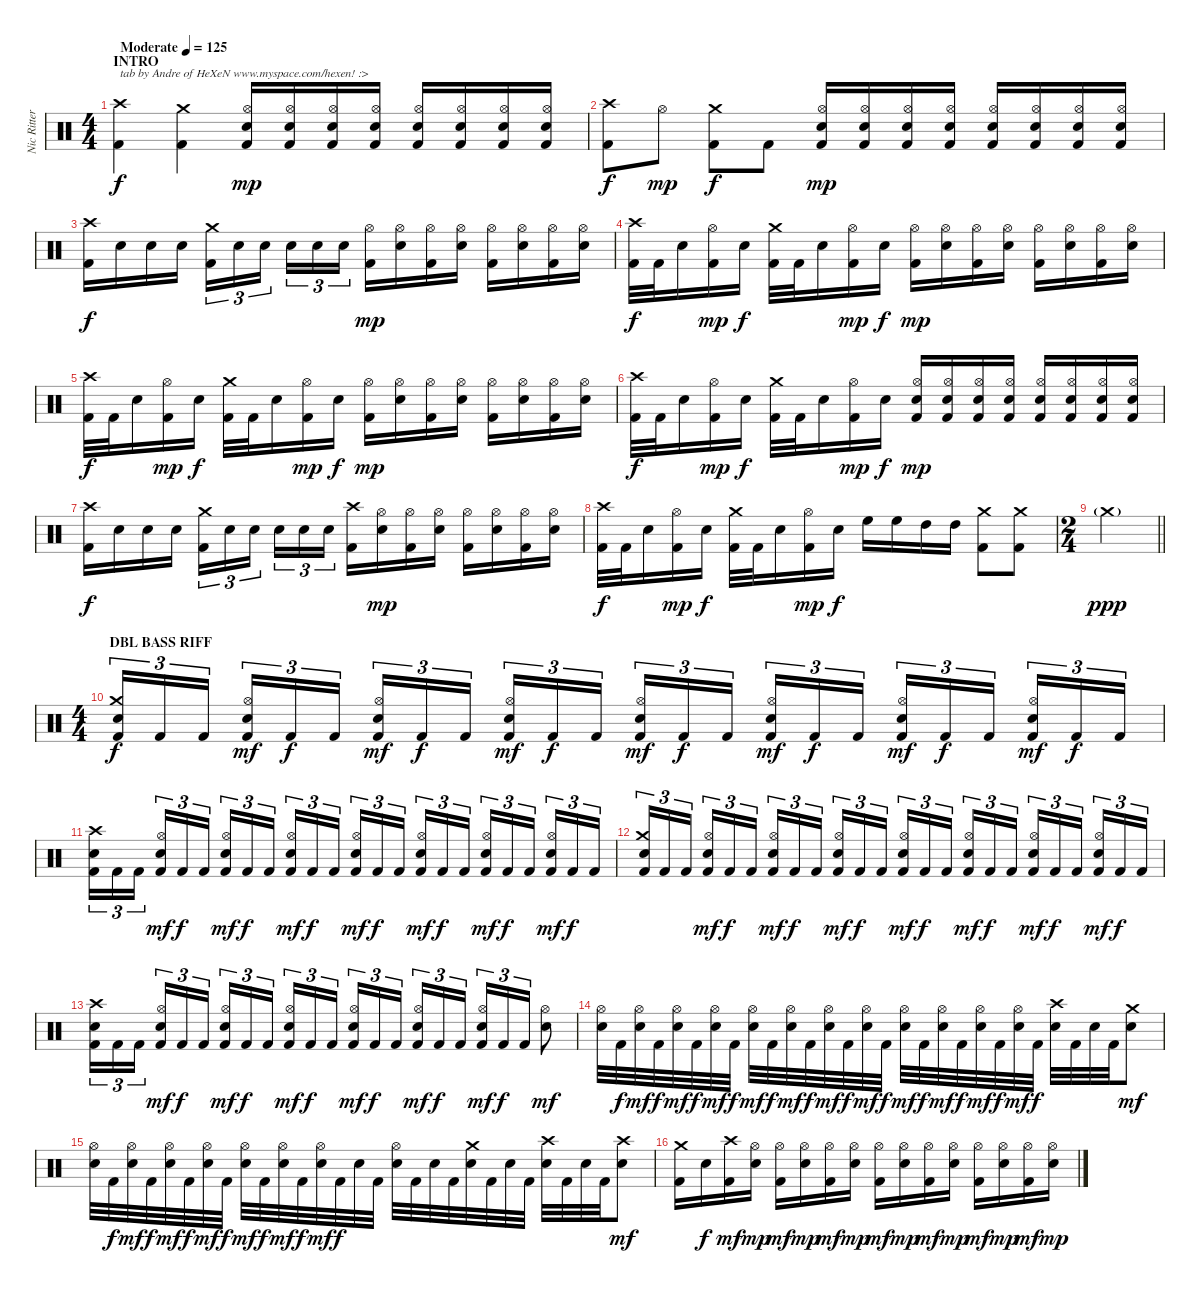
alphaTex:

\track ("Nic Ritter" "Nic Ritter") {instrument percussion}
\staff {score}
\articulation defaults
\ts (4 4)
\section ("" "INTRO")
\tempo (125 "Moderate")
\clef neutral
\ks c
("Crash high (hit)" "Kick (hit) 2").4{txt "tab by Andre of HeXeN www.myspace.com/hexen! :>" dy f} ("Crash medium (hit)" "Kick (hit) 2").4 ("Hi-Hat (open)" "Electric Snare (hit)" "Kick (hit) 2").16{dy mp} ("Hi-Hat (open)" "Electric Snare (hit)" "Kick (hit) 2").16 ("Hi-Hat (open)" "Electric Snare (hit)" "Kick (hit) 2").16 ("Hi-Hat (open)" "Electric Snare (hit)" "Kick (hit) 2").16 ("Hi-Hat (open)" "Electric Snare (hit)" "Kick (hit) 2").16 ("Hi-Hat (open)" "Electric Snare (hit)" "Kick (hit) 2").16 ("Hi-Hat (open)" "Electric Snare (hit)" "Kick (hit) 2").16 ("Hi-Hat (open)" "Electric Snare (hit)" "Kick (hit) 2").16 |
("Crash high (hit)" "Kick (hit) 2").8{dy f} "Hi-Hat (open)".8{dy mp} ("Crash medium (hit)" "Kick (hit) 2").8{dy f} "Kick (hit) 2".8 ("Hi-Hat (open)" "Electric Snare (hit)" "Kick (hit) 2").16{dy mp} ("Hi-Hat (open)" "Electric Snare (hit)" "Kick (hit) 2").16 ("Hi-Hat (open)" "Electric Snare (hit)" "Kick (hit) 2").16 ("Hi-Hat (open)" "Electric Snare (hit)" "Kick (hit) 2").16 ("Hi-Hat (open)" "Electric Snare (hit)" "Kick (hit) 2").16 ("Hi-Hat (open)" "Electric Snare (hit)" "Kick (hit) 2").16 ("Hi-Hat (open)" "Electric Snare (hit)" "Kick (hit) 2").16 ("Hi-Hat (open)" "Electric Snare (hit)" "Kick (hit) 2").16 |
("Crash high (hit)" "Kick (hit) 2").16{dy f} "Electric Snare (hit)".16 "Electric Snare (hit)".16 "Electric Snare (hit)".16 ("Crash medium (hit)" "Kick (hit) 2").16{tu (3 2)} "Electric Snare (hit)".16{tu (3 2)} "Electric Snare (hit)".16{tu (3 2) beam splitsecondary} "Electric Snare (hit)".16{tu (3 2)} "Electric Snare (hit)".16{tu (3 2)} "Electric Snare (hit)".16{tu (3 2)} ("Hi-Hat (open)" "Kick (hit) 2").16{dy mp} ("Hi-Hat (open)" "Electric Snare (hit)").16 ("Hi-Hat (open)" "Kick (hit) 2").16 ("Hi-Hat (open)" "Electric Snare (hit)").16 ("Hi-Hat (open)" "Kick (hit) 2").16 ("Hi-Hat (open)" "Electric Snare (hit)").16 ("Hi-Hat (open)" "Kick (hit) 2").16 ("Hi-Hat (open)" "Electric Snare (hit)").16 |
("Crash high (hit)" "Kick (hit) 2").32{dy f} "Kick (hit) 2".32 "Electric Snare (hit)".16 ("Hi-Hat (open)" "Kick (hit) 2").16{dy mp} "Electric Snare (hit)".16{dy f} ("Crash medium (hit)" "Kick (hit) 2").32 "Kick (hit) 2".32 "Electric Snare (hit)".16 ("Hi-Hat (open)" "Kick (hit) 2").16{dy mp} "Electric Snare (hit)".16{dy f} ("Hi-Hat (open)" "Kick (hit) 2").16{dy mp} ("Hi-Hat (open)" "Electric Snare (hit)").16 ("Hi-Hat (open)" "Kick (hit) 2").16 ("Hi-Hat (open)" "Electric Snare (hit)").16 ("Hi-Hat (open)" "Kick (hit) 2").16 ("Hi-Hat (open)" "Electric Snare (hit)").16 ("Hi-Hat (open)" "Kick (hit) 2").16 ("Hi-Hat (open)" "Electric Snare (hit)").16 |
("Crash high (hit)" "Kick (hit) 2").32{dy f} "Kick (hit) 2".32 "Electric Snare (hit)".16 ("Hi-Hat (open)" "Kick (hit) 2").16{dy mp} "Electric Snare (hit)".16{dy f} ("Crash medium (hit)" "Kick (hit) 2").32 "Kick (hit) 2".32 "Electric Snare (hit)".16 ("Hi-Hat (open)" "Kick (hit) 2").16{dy mp} "Electric Snare (hit)".16{dy f} ("Hi-Hat (open)" "Kick (hit) 2").16{dy mp} ("Hi-Hat (open)" "Electric Snare (hit)").16 ("Hi-Hat (open)" "Kick (hit) 2").16 ("Hi-Hat (open)" "Electric Snare (hit)").16 ("Hi-Hat (open)" "Kick (hit) 2").16 ("Hi-Hat (open)" "Electric Snare (hit)").16 ("Hi-Hat (open)" "Kick (hit) 2").16 ("Hi-Hat (open)" "Electric Snare (hit)").16 |
("Crash high (hit)" "Kick (hit) 2").32{dy f} "Kick (hit) 2".32 "Electric Snare (hit)".16 ("Hi-Hat (open)" "Kick (hit) 2").16{dy mp} "Electric Snare (hit)".16{dy f} ("Crash medium (hit)" "Kick (hit) 2").32 "Kick (hit) 2".32 "Electric Snare (hit)".16 ("Hi-Hat (open)" "Kick (hit) 2").16{dy mp} "Electric Snare (hit)".16{dy f} ("Hi-Hat (open)" "Electric Snare (hit)" "Kick (hit) 2").16{dy mp} ("Hi-Hat (open)" "Electric Snare (hit)" "Kick (hit) 2").16 ("Hi-Hat (open)" "Electric Snare (hit)" "Kick (hit) 2").16 ("Hi-Hat (open)" "Electric Snare (hit)" "Kick (hit) 2").16 ("Hi-Hat (open)" "Electric Snare (hit)" "Kick (hit) 2").16 ("Hi-Hat (open)" "Electric Snare (hit)" "Kick (hit) 2").16 ("Hi-Hat (open)" "Electric Snare (hit)" "Kick (hit) 2").16 ("Hi-Hat (open)" "Electric Snare (hit)" "Kick (hit) 2").16 |
("Crash high (hit)" "Kick (hit) 2").16{dy f} "Electric Snare (hit)".16 "Electric Snare (hit)".16 "Electric Snare (hit)".16 ("Crash medium (hit)" "Kick (hit) 2").16{tu (3 2)} "Electric Snare (hit)".16{tu (3 2)} "Electric Snare (hit)".16{tu (3 2) beam splitsecondary} "Electric Snare (hit)".16{tu (3 2)} "Electric Snare (hit)".16{tu (3 2)} "Electric Snare (hit)".16{tu (3 2)} ("Crash high (hit)" "Kick (hit) 2").16 ("Hi-Hat (open)" "Electric Snare (hit)").16{dy mp} ("Hi-Hat (open)" "Kick (hit) 2").16 ("Hi-Hat (open)" "Electric Snare (hit)").16 ("Hi-Hat (open)" "Kick (hit) 2").16 ("Hi-Hat (open)" "Electric Snare (hit)").16 ("Hi-Hat (open)" "Kick (hit) 2").16 ("Hi-Hat (open)" "Electric Snare (hit)").16 |
("Crash high (hit)" "Kick (hit) 2").32{dy f} "Kick (hit) 2".32 "Electric Snare (hit)".16 ("Hi-Hat (open)" "Kick (hit) 2").16{dy mp} "Electric Snare (hit)".16{dy f} ("Crash medium (hit)" "Kick (hit) 2").32 "Kick (hit) 2".32 "Electric Snare (hit)".16 ("Hi-Hat (open)" "Kick (hit) 2").16{dy mp} "Electric Snare (hit)".16{dy f} "High Floor Tom (hit)".16 "High Floor Tom (hit)".16 "High Tom (hit)".16 "High Tom (hit)".16 ("Crash medium (hit)" "Kick (hit) 2").8 ("Crash medium (hit)" "Kick (hit) 2").8 |
\ts (2 4)
\barLineRight lightlight "Crash medium (hit)"{g}.2{dy ppp volume 0}
|
\ts (4 4)
\section ("" "DBL BASS RIFF")
("Crash medium (hit)" "Electric Snare (hit)" "Kick (hit) 2").16{tu (3 2) dy f volume 14} "Kick (hit) 2".16{tu (3 2)} "Kick (hit) 2".16{tu (3 2) beam splitsecondary} ("Hi-Hat (open)" "Electric Snare (hit)" "Kick (hit) 2").16{tu (3 2) dy mf} "Kick (hit) 2".16{tu (3 2) dy f} "Kick (hit) 2".16{tu (3 2)} ("Hi-Hat (open)" "Electric Snare (hit)" "Kick (hit) 2").16{tu (3 2) dy mf} "Kick (hit) 2".16{tu (3 2) dy f} "Kick (hit) 2".16{tu (3 2) beam splitsecondary} ("Hi-Hat (open)" "Electric Snare (hit)" "Kick (hit) 2").16{tu (3 2) dy mf} "Kick (hit) 2".16{tu (3 2) dy f} "Kick (hit) 2".16{tu (3 2)} ("Hi-Hat (open)" "Electric Snare (hit)" "Kick (hit) 2").16{tu (3 2) dy mf} "Kick (hit) 2".16{tu (3 2) dy f} "Kick (hit) 2".16{tu (3 2) beam splitsecondary} ("Hi-Hat (open)" "Electric Snare (hit)" "Kick (hit) 2").16{tu (3 2) dy mf} "Kick (hit) 2".16{tu (3 2) dy f} "Kick (hit) 2".16{tu (3 2)} ("Hi-Hat (open)" "Electric Snare (hit)" "Kick (hit) 2").16{tu (3 2) dy mf} "Kick (hit) 2".16{tu (3 2) dy f} "Kick (hit) 2".16{tu (3 2) beam splitsecondary} ("Hi-Hat (open)" "Electric Snare (hit)" "Kick (hit) 2").16{tu (3 2) dy mf} "Kick (hit) 2".16{tu (3 2) dy f} "Kick (hit) 2".16{tu (3 2)} |
("Crash high (hit)" "Electric Snare (hit)" "Kick (hit) 2").16{tu (3 2)} "Kick (hit) 2".16{tu (3 2)} "Kick (hit) 2".16{tu (3 2) beam splitsecondary} ("Hi-Hat (open)" "Electric Snare (hit)" "Kick (hit) 2").16{tu (3 2) dy mf} "Kick (hit) 2".16{tu (3 2) dy f} "Kick (hit) 2".16{tu (3 2)} ("Hi-Hat (open)" "Electric Snare (hit)" "Kick (hit) 2").16{tu (3 2) dy mf} "Kick (hit) 2".16{tu (3 2) dy f} "Kick (hit) 2".16{tu (3 2) beam splitsecondary} ("Hi-Hat (open)" "Electric Snare (hit)" "Kick (hit) 2").16{tu (3 2) dy mf} "Kick (hit) 2".16{tu (3 2) dy f} "Kick (hit) 2".16{tu (3 2)} ("Hi-Hat (open)" "Electric Snare (hit)" "Kick (hit) 2").16{tu (3 2) dy mf} "Kick (hit) 2".16{tu (3 2) dy f} "Kick (hit) 2".16{tu (3 2) beam splitsecondary} ("Hi-Hat (open)" "Electric Snare (hit)" "Kick (hit) 2").16{tu (3 2) dy mf} "Kick (hit) 2".16{tu (3 2) dy f} "Kick (hit) 2".16{tu (3 2)} ("Hi-Hat (open)" "Electric Snare (hit)" "Kick (hit) 2").16{tu (3 2) dy mf} "Kick (hit) 2".16{tu (3 2) dy f} "Kick (hit) 2".16{tu (3 2) beam splitsecondary} ("Hi-Hat (open)" "Electric Snare (hit)" "Kick (hit) 2").16{tu (3 2) dy mf} "Kick (hit) 2".16{tu (3 2) dy f} "Kick (hit) 2".16{tu (3 2)} |
("Crash medium (hit)" "Electric Snare (hit)" "Kick (hit) 2").16{tu (3 2)} "Kick (hit) 2".16{tu (3 2)} "Kick (hit) 2".16{tu (3 2) beam splitsecondary} ("Hi-Hat (open)" "Electric Snare (hit)" "Kick (hit) 2").16{tu (3 2) dy mf} "Kick (hit) 2".16{tu (3 2) dy f} "Kick (hit) 2".16{tu (3 2)} ("Hi-Hat (open)" "Electric Snare (hit)" "Kick (hit) 2").16{tu (3 2) dy mf} "Kick (hit) 2".16{tu (3 2) dy f} "Kick (hit) 2".16{tu (3 2) beam splitsecondary} ("Hi-Hat (open)" "Electric Snare (hit)" "Kick (hit) 2").16{tu (3 2) dy mf} "Kick (hit) 2".16{tu (3 2) dy f} "Kick (hit) 2".16{tu (3 2)} ("Hi-Hat (open)" "Electric Snare (hit)" "Kick (hit) 2").16{tu (3 2) dy mf} "Kick (hit) 2".16{tu (3 2) dy f} "Kick (hit) 2".16{tu (3 2) beam splitsecondary} ("Hi-Hat (open)" "Electric Snare (hit)" "Kick (hit) 2").16{tu (3 2) dy mf} "Kick (hit) 2".16{tu (3 2) dy f} "Kick (hit) 2".16{tu (3 2)} ("Hi-Hat (open)" "Electric Snare (hit)" "Kick (hit) 2").16{tu (3 2) dy mf} "Kick (hit) 2".16{tu (3 2) dy f} "Kick (hit) 2".16{tu (3 2) beam splitsecondary} ("Hi-Hat (open)" "Electric Snare (hit)" "Kick (hit) 2").16{tu (3 2) dy mf} "Kick (hit) 2".16{tu (3 2) dy f} "Kick (hit) 2".16{tu (3 2)} |
("Crash high (hit)" "Electric Snare (hit)" "Kick (hit) 2").16{tu (3 2)} "Kick (hit) 2".16{tu (3 2)} "Kick (hit) 2".16{tu (3 2) beam splitsecondary} ("Hi-Hat (open)" "Electric Snare (hit)" "Kick (hit) 2").16{tu (3 2) dy mf} "Kick (hit) 2".16{tu (3 2) dy f} "Kick (hit) 2".16{tu (3 2)} ("Hi-Hat (open)" "Electric Snare (hit)" "Kick (hit) 2").16{tu (3 2) dy mf} "Kick (hit) 2".16{tu (3 2) dy f} "Kick (hit) 2".16{tu (3 2) beam splitsecondary} ("Hi-Hat (open)" "Electric Snare (hit)" "Kick (hit) 2").16{tu (3 2) dy mf} "Kick (hit) 2".16{tu (3 2) dy f} "Kick (hit) 2".16{tu (3 2)} ("Hi-Hat (open)" "Electric Snare (hit)" "Kick (hit) 2").16{tu (3 2) dy mf} "Kick (hit) 2".16{tu (3 2) dy f} "Kick (hit) 2".16{tu (3 2) beam splitsecondary} ("Hi-Hat (open)" "Electric Snare (hit)" "Kick (hit) 2").16{tu (3 2) dy mf} "Kick (hit) 2".16{tu (3 2) dy f} "Kick (hit) 2".16{tu (3 2)} ("Hi-Hat (open)" "Electric Snare (hit)" "Kick (hit) 2").16{tu (3 2) dy mf} "Kick (hit) 2".16{tu (3 2) dy f} "Kick (hit) 2".16{tu (3 2)} ("Hi-Hat (open)" "Electric Snare (hit)").8{dy mf} |
("Hi-Hat (open)" "Electric Snare (hit)").32 "Kick (hit) 2".32{dy f} ("Hi-Hat (open)" "Electric Snare (hit)").32{dy mf} "Kick (hit) 2".32{dy f} ("Hi-Hat (open)" "Electric Snare (hit)").32{dy mf} "Kick (hit) 2".32{dy f} ("Hi-Hat (open)" "Electric Snare (hit)").32{dy mf} "Kick (hit) 2".32{dy f} ("Hi-Hat (open)" "Electric Snare (hit)").32{dy mf} "Kick (hit) 2".32{dy f} ("Hi-Hat (open)" "Electric Snare (hit)").32{dy mf} "Kick (hit) 2".32{dy f} ("Hi-Hat (open)" "Electric Snare (hit)").32{dy mf} "Kick (hit) 2".32{dy f} ("Hi-Hat (open)" "Electric Snare (hit)").32{dy mf} "Kick (hit) 2".32{dy f} ("Hi-Hat (open)" "Electric Snare (hit)").32{dy mf} "Kick (hit) 2".32{dy f} ("Hi-Hat (open)" "Electric Snare (hit)").32{dy mf} "Kick (hit) 2".32{dy f} ("Hi-Hat (open)" "Electric Snare (hit)").32{dy mf} "Kick (hit) 2".32{dy f} ("Hi-Hat (open)" "Electric Snare (hit)").32{dy mf} "Kick (hit) 2".32{dy f} ("Crash high (hit)" "Electric Snare (hit)").32 "Kick (hit) 2".32 "Electric Snare (hit)".32 "Kick (hit) 2".32 ("Crash medium (hit)" "Electric Snare (hit)").8{dy mf} |
("Hi-Hat (open)" "Electric Snare (hit)").32 "Kick (hit) 2".32{dy f} ("Hi-Hat (open)" "Electric Snare (hit)").32{dy mf} "Kick (hit) 2".32{dy f} ("Hi-Hat (open)" "Electric Snare (hit)").32{dy mf} "Kick (hit) 2".32{dy f} ("Hi-Hat (open)" "Electric Snare (hit)").32{dy mf} "Kick (hit) 2".32{dy f} ("Hi-Hat (open)" "Electric Snare (hit)").32{dy mf} "Kick (hit) 2".32{dy f} ("Hi-Hat (open)" "Electric Snare (hit)").32{dy mf} "Kick (hit) 2".32{dy f} ("Hi-Hat (open)" "Electric Snare (hit)").32{dy mf} "Kick (hit) 2".32{dy f} "Electric Snare (hit)".32 "Kick (hit) 2".32 ("Hi-Hat (open)" "Electric Snare (hit)").32 "Kick (hit) 2".32 "Electric Snare (hit)".32 "Kick (hit) 2".32 ("Crash medium (hit)" "Electric Snare (hit)").32 "Kick (hit) 2".32 "Electric Snare (hit)".32 "Kick (hit) 2".32 ("Crash high (hit)" "Electric Snare (hit)").32 "Kick (hit) 2".32 "Electric Snare (hit)".32 "Kick (hit) 2".32 ("Crash high (hit)" "Electric Snare (hit)").8{dy mf} |
("Crash medium (hit)" "Kick (hit) 2").16 "Electric Snare (hit)".16{dy f} ("Crash high (hit)" "Kick (hit) 2").16{dy mf} ("Hi-Hat (open)" "Electric Snare (hit)").16{dy mp} ("Hi-Hat (open)" "Kick (hit) 2").16{dy mf} ("Hi-Hat (open)" "Electric Snare (hit)").16{dy mp} ("Hi-Hat (open)" "Kick (hit) 2").16{dy mf} ("Hi-Hat (open)" "Electric Snare (hit)").16{dy mp} ("Hi-Hat (open)" "Kick (hit) 2").16{dy mf} ("Hi-Hat (open)" "Electric Snare (hit)").16{dy mp} ("Hi-Hat (open)" "Kick (hit) 2").16{dy mf} ("Hi-Hat (open)" "Electric Snare (hit)").16{dy mp} ("Hi-Hat (open)" "Kick (hit) 2").16{dy mf} ("Hi-Hat (open)" "Electric Snare (hit)").16{dy mp} ("Hi-Hat (open)" "Kick (hit) 2").16{dy mf} ("Hi-Hat (open)" "Electric Snare (hit)").16{dy mp}
